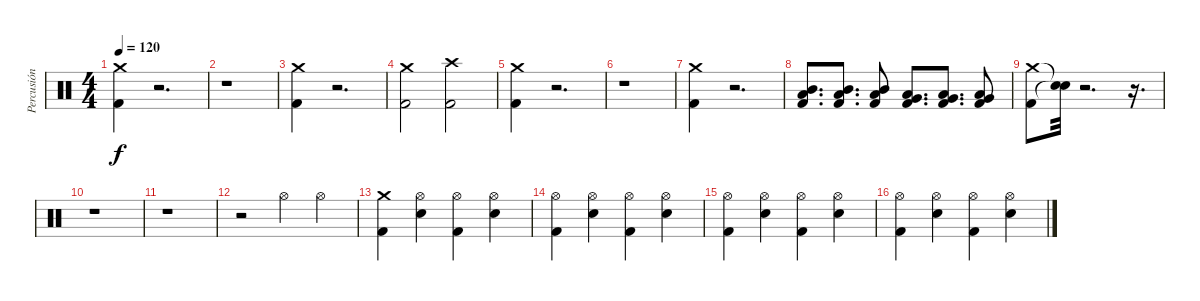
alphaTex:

\track ("Percusión" "Percusión") {instrument percussion}
\staff {score}
\articulation defaults
\ts (4 4)
\tempo 120
\clef neutral
\ks c
("Kick (hit) 2" "Crash medium (hit)").4{dy f} r.2{d} |
r.1 |
("Kick (hit) 2" "Crash medium (hit)").4 r.2{d} |
("Kick (hit) 2" "Crash medium (hit)").2 ("Kick (hit) 2" "Crash high (hit)").2 |
("Kick (hit) 2" "Crash medium (hit)").4 r.2{d} |
r.1 |
("Kick (hit) 2" "Crash medium (hit)").4 r.2{d} |
("Kick (hit) 2" "Low Tom (hit)" "Mid Tom (hit)").8{d} ("Kick (hit) 2" "Low Tom (hit)" "Mid Tom (hit)").8{d} ("Kick (hit) 2" "Low Tom (hit)" "Mid Tom (hit)").8 ("Kick (hit) 2" "Very Low Tom (hit)" "Low Tom (hit)").8{d} ("Kick (hit) 2" "Very Low Tom (hit)" "Low Tom (hit)").8{d} ("Kick (hit) 2" "Very Low Tom (hit)" "Low Tom (hit)").8 |
("Kick (hit) 2" "Crash medium (hit)").8 ("Snare (hit)"{t} "Snare (hit)"{t}).32 r.2{d} r.16{d} |
r.1 |
r.1 |
r.2 "Hi-Hat (open)".4 "Hi-Hat (open)".4 |
("Kick (hit) 2" "Crash medium (hit)").4 ("Electric Snare (hit)" "Hi-Hat (open)").4 ("Kick (hit) 2" "Hi-Hat (open)").4 ("Electric Snare (hit)" "Hi-Hat (open)").4 |
("Kick (hit) 2" "Hi-Hat (open)").4 ("Electric Snare (hit)" "Hi-Hat (open)").4 ("Kick (hit) 2" "Hi-Hat (open)").4 ("Electric Snare (hit)" "Hi-Hat (open)").4 |
("Kick (hit) 2" "Hi-Hat (open)").4 ("Electric Snare (hit)" "Hi-Hat (open)").4 ("Kick (hit) 2" "Hi-Hat (open)").4 ("Electric Snare (hit)" "Hi-Hat (open)").4 |
("Kick (hit) 2" "Hi-Hat (open)").4 ("Electric Snare (hit)" "Hi-Hat (open)").4 ("Kick (hit) 2" "Hi-Hat (open)").4 ("Electric Snare (hit)" "Hi-Hat (open)").4
